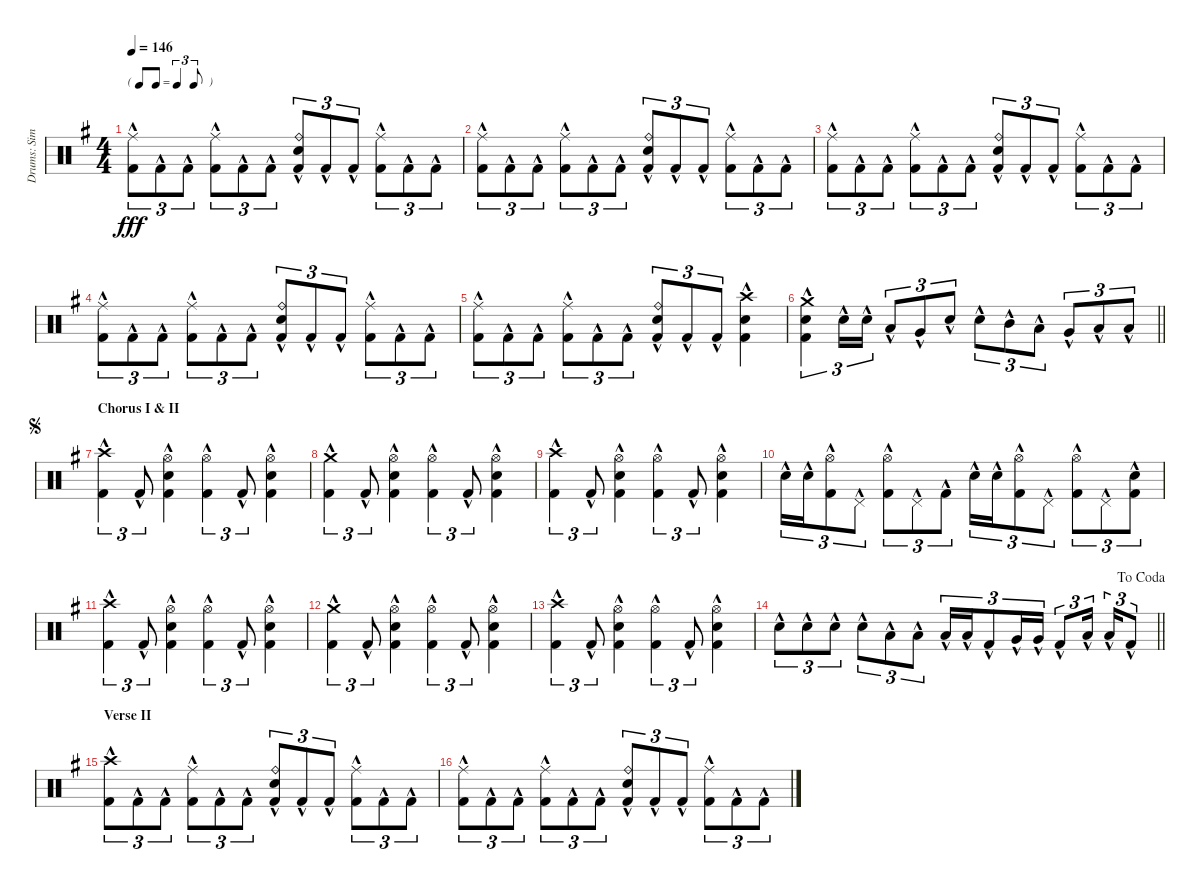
\track ("Drums: Simon" "Drums: Sim") {instrument percussion}
\staff {score}
\articulation defaults
\ts (4 4)
\tf triplet8th
\tempo 146
\clef neutral
\ks g
("Ride (middle)"{hac} "Kick (hit) 2"{hac}).8{tu (3 2) dy fff} "Kick (hit) 2"{hac}.8{tu (3 2)} "Kick (hit) 2"{hac}.8{tu (3 2)} ("Ride (middle)"{hac} "Kick (hit) 2"{hac}).8{tu (3 2)} "Kick (hit) 2"{hac}.8{tu (3 2)} "Kick (hit) 2"{hac}.8{tu (3 2)} ("Ride (bell)"{hac} "Snare (hit) 2"{hac} "Kick (hit) 2"{hac}).8{tu (3 2)} "Kick (hit) 2"{hac}.8{tu (3 2)} "Kick (hit) 2"{hac}.8{tu (3 2)} ("Ride (middle)"{hac} "Kick (hit) 2"{hac}).8{tu (3 2)} "Kick (hit) 2"{hac}.8{tu (3 2)} "Kick (hit) 2"{hac}.8{tu (3 2)} |
("Ride (middle)"{hac} "Kick (hit) 2"{hac}).8{tu (3 2)} "Kick (hit) 2"{hac}.8{tu (3 2)} "Kick (hit) 2"{hac}.8{tu (3 2)} ("Ride (middle)"{hac} "Kick (hit) 2"{hac}).8{tu (3 2)} "Kick (hit) 2"{hac}.8{tu (3 2)} "Kick (hit) 2"{hac}.8{tu (3 2)} ("Ride (bell)"{hac} "Snare (hit) 2"{hac} "Kick (hit) 2"{hac}).8{tu (3 2)} "Kick (hit) 2"{hac}.8{tu (3 2)} "Kick (hit) 2"{hac}.8{tu (3 2)} ("Ride (middle)"{hac} "Kick (hit) 2"{hac}).8{tu (3 2)} "Kick (hit) 2"{hac}.8{tu (3 2)} "Kick (hit) 2"{hac}.8{tu (3 2)} |
("Ride (middle)"{hac} "Kick (hit) 2"{hac}).8{tu (3 2)} "Kick (hit) 2"{hac}.8{tu (3 2)} "Kick (hit) 2"{hac}.8{tu (3 2)} ("Ride (middle)"{hac} "Kick (hit) 2"{hac}).8{tu (3 2)} "Kick (hit) 2"{hac}.8{tu (3 2)} "Kick (hit) 2"{hac}.8{tu (3 2)} ("Ride (bell)"{hac} "Snare (hit) 2"{hac} "Kick (hit) 2"{hac}).8{tu (3 2)} "Kick (hit) 2"{hac}.8{tu (3 2)} "Kick (hit) 2"{hac}.8{tu (3 2)} ("Ride (middle)"{hac} "Kick (hit) 2"{hac}).8{tu (3 2)} "Kick (hit) 2"{hac}.8{tu (3 2)} "Kick (hit) 2"{hac}.8{tu (3 2)} |
("Ride (middle)"{hac} "Kick (hit) 2"{hac}).8{tu (3 2)} "Kick (hit) 2"{hac}.8{tu (3 2)} "Kick (hit) 2"{hac}.8{tu (3 2)} ("Ride (middle)"{hac} "Kick (hit) 2"{hac}).8{tu (3 2)} "Kick (hit) 2"{hac}.8{tu (3 2)} "Kick (hit) 2"{hac}.8{tu (3 2)} ("Ride (bell)"{hac} "Snare (hit) 2"{hac} "Kick (hit) 2"{hac}).8{tu (3 2)} "Kick (hit) 2"{hac}.8{tu (3 2)} "Kick (hit) 2"{hac}.8{tu (3 2)} ("Ride (middle)"{hac} "Kick (hit) 2"{hac}).8{tu (3 2)} "Kick (hit) 2"{hac}.8{tu (3 2)} "Kick (hit) 2"{hac}.8{tu (3 2)} |
("Ride (middle)"{hac} "Kick (hit) 2"{hac}).8{tu (3 2)} "Kick (hit) 2"{hac}.8{tu (3 2)} "Kick (hit) 2"{hac}.8{tu (3 2)} ("Ride (middle)"{hac} "Kick (hit) 2"{hac}).8{tu (3 2)} "Kick (hit) 2"{hac}.8{tu (3 2)} "Kick (hit) 2"{hac}.8{tu (3 2)} ("Ride (bell)"{hac} "Snare (hit) 2"{hac} "Kick (hit) 2"{hac}).8{tu (3 2)} "Kick (hit) 2"{hac}.8{tu (3 2)} "Kick (hit) 2"{hac}.8{tu (3 2)} ("Crash high (hit)"{hac} "Snare (hit) 2"{hac} "Kick (hit) 2"{hac}).4 |
\barLineRight lightlight
("Crash medium (hit)"{hac} "Snare (hit) 2"{hac} "Kick (hit) 2"{hac}).4{tu (3 2)} "Snare (hit) 2"{hac}.16{tu (3 2)} "Snare (hit) 2"{hac}.16{tu (3 2)} "Low Tom (hit)"{hac}.8{tu (3 2)} "Very Low Tom (hit)"{hac}.8{tu (3 2)} "Snare (hit) 2"{hac}.8{tu (3 2)} "Snare (hit) 2"{hac}.8{tu (3 2)} "Mid Tom (hit)"{hac}.8{tu (3 2)} "Low Tom (hit)"{hac}.8{tu (3 2)} "Very Low Tom (hit)"{hac}.8{tu (3 2)} "Low Floor Tom (hit)"{hac}.8{tu (3 2)} "Low Floor Tom (hit)"{hac}.8{tu (3 2)} |
\section ("" "Chorus I & II")
\jump segno
("Crash high (hit)"{hac} "Kick (hit) 2"{hac}).4{tu (3 2)} "Kick (hit) 2"{hac}.8{tu (3 2)} ("Hi-Hat (open)"{hac} "Snare (hit) 2"{hac} "Kick (hit) 2"{hac}).4 ("Hi-Hat (open)"{hac} "Kick (hit) 2"{hac}).4{tu (3 2)} "Kick (hit) 2"{hac}.8{tu (3 2)} ("Hi-Hat (open)"{hac} "Snare (hit) 2"{hac} "Kick (hit) 2"{hac}).4 |
("Crash medium (hit)"{hac} "Kick (hit) 2"{hac}).4{tu (3 2)} "Kick (hit) 2"{hac}.8{tu (3 2)} ("Hi-Hat (open)"{hac} "Snare (hit) 2"{hac} "Kick (hit) 2"{hac}).4 ("Hi-Hat (open)"{hac} "Kick (hit) 2"{hac}).4{tu (3 2)} "Kick (hit) 2"{hac}.8{tu (3 2)} ("Hi-Hat (open)"{hac} "Snare (hit) 2"{hac} "Kick (hit) 2"{hac}).4 |
("Crash high (hit)"{hac} "Kick (hit) 2"{hac}).4{tu (3 2)} "Kick (hit) 2"{hac}.8{tu (3 2)} ("Hi-Hat (open)"{hac} "Snare (hit) 2"{hac} "Kick (hit) 2"{hac}).4 ("Hi-Hat (open)"{hac} "Kick (hit) 2"{hac}).4{tu (3 2)} "Kick (hit) 2"{hac}.8{tu (3 2)} ("Hi-Hat (open)"{hac} "Snare (hit) 2"{hac} "Kick (hit) 2"{hac}).4 |
"Snare (hit) 2"{hac}.16{tu (3 2)} "Snare (hit) 2"{hac}.16{tu (3 2)} ("Hi-Hat (open)"{hac} "Kick (hit) 2"{hac}).8{tu (3 2)} "Pedal Hi-Hat (hit)"{hac}.8{tu (3 2)} ("Hi-Hat (open)"{hac} "Kick (hit) 2"{hac}).8{tu (3 2)} "Pedal Hi-Hat (hit)"{hac}.8{tu (3 2)} "Kick (hit) 2"{hac}.8{tu (3 2)} "Snare (hit) 2"{hac}.16{tu (3 2)} "Snare (hit) 2"{hac}.16{tu (3 2)} ("Hi-Hat (open)"{hac} "Kick (hit) 2"{hac}).8{tu (3 2)} "Pedal Hi-Hat (hit)"{hac}.8{tu (3 2)} ("Hi-Hat (open)"{hac} "Kick (hit) 2"{hac}).8{tu (3 2)} "Pedal Hi-Hat (hit)"{hac}.8{tu (3 2)} ("Snare (hit) 2"{hac} "Kick (hit) 2"{hac}).8{tu (3 2)} |
("Crash high (hit)"{hac} "Kick (hit) 2"{hac}).4{tu (3 2)} "Kick (hit) 2"{hac}.8{tu (3 2)} ("Hi-Hat (open)"{hac} "Snare (hit) 2"{hac} "Kick (hit) 2"{hac}).4 ("Hi-Hat (open)"{hac} "Kick (hit) 2"{hac}).4{tu (3 2)} "Kick (hit) 2"{hac}.8{tu (3 2)} ("Hi-Hat (open)"{hac} "Snare (hit) 2"{hac} "Kick (hit) 2"{hac}).4 |
("Crash medium (hit)"{hac} "Kick (hit) 2"{hac}).4{tu (3 2)} "Kick (hit) 2"{hac}.8{tu (3 2)} ("Hi-Hat (open)"{hac} "Snare (hit) 2"{hac} "Kick (hit) 2"{hac}).4 ("Hi-Hat (open)"{hac} "Kick (hit) 2"{hac}).4{tu (3 2)} "Kick (hit) 2"{hac}.8{tu (3 2)} ("Hi-Hat (open)"{hac} "Snare (hit) 2"{hac} "Kick (hit) 2"{hac}).4 |
("Crash high (hit)"{hac} "Kick (hit) 2"{hac}).4{tu (3 2)} "Kick (hit) 2"{hac}.8{tu (3 2)} ("Hi-Hat (open)"{hac} "Snare (hit) 2"{hac} "Kick (hit) 2"{hac}).4 ("Hi-Hat (open)"{hac} "Kick (hit) 2"{hac}).4{tu (3 2)} "Kick (hit) 2"{hac}.8{tu (3 2)} ("Hi-Hat (open)"{hac} "Snare (hit) 2"{hac} "Kick (hit) 2"{hac}).4 |
\jump dacoda
\barLineRight lightlight "Electric Snare (hit)"{hac}.8{tu (3 2)} "Electric Snare (hit)"{hac}.8{tu (3 2)} "Electric Snare (hit)"{hac}.8{tu (3 2)} "Electric Snare (hit)"{hac}.8{tu (3 2)} "Low Tom (hit)"{hac}.8{tu (3 2)} "Low Tom (hit)"{hac}.8{tu (3 2)} "Low Tom (hit)"{hac}.16{tu (3 2)} "Low Tom (hit)"{hac}.16{tu (3 2)} "Kick (hit) 2"{hac}.8{tu (3 2)} "Very Low Tom (hit)"{hac}.16{tu (3 2)} "Very Low Tom (hit)"{hac}.16{tu (3 2)} "Kick (hit) 2"{hac}.8{tu (3 2)} "Low Floor Tom (hit)"{hac}.16{tu (3 2) beam splitsecondary} "Low Floor Tom (hit)"{hac}.16{tu (3 2)} "Kick (hit) 2"{hac}.8{tu (3 2)}
|
\section ("" "Verse II")
("Crash high (hit)"{hac} "Kick (hit) 2"{hac}).8{tu (3 2)} "Kick (hit) 2"{hac}.8{tu (3 2)} "Kick (hit) 2"{hac}.8{tu (3 2)} ("Ride (middle)"{hac} "Kick (hit) 2"{hac}).8{tu (3 2)} "Kick (hit) 2"{hac}.8{tu (3 2)} "Kick (hit) 2"{hac}.8{tu (3 2)} ("Ride (bell)"{hac} "Snare (hit) 2"{hac} "Kick (hit) 2"{hac}).8{tu (3 2)} "Kick (hit) 2"{hac}.8{tu (3 2)} "Kick (hit) 2"{hac}.8{tu (3 2)} ("Ride (middle)"{hac} "Kick (hit) 2"{hac}).8{tu (3 2)} "Kick (hit) 2"{hac}.8{tu (3 2)} "Kick (hit) 2"{hac}.8{tu (3 2)} |
("Ride (middle)"{hac} "Kick (hit) 2"{hac}).8{tu (3 2)} "Kick (hit) 2"{hac}.8{tu (3 2)} "Kick (hit) 2"{hac}.8{tu (3 2)} ("Ride (middle)"{hac} "Kick (hit) 2"{hac}).8{tu (3 2)} "Kick (hit) 2"{hac}.8{tu (3 2)} "Kick (hit) 2"{hac}.8{tu (3 2)} ("Ride (bell)"{hac} "Snare (hit) 2"{hac} "Kick (hit) 2"{hac}).8{tu (3 2)} "Kick (hit) 2"{hac}.8{tu (3 2)} "Kick (hit) 2"{hac}.8{tu (3 2)} ("Ride (middle)"{hac} "Kick (hit) 2"{hac}).8{tu (3 2)} "Kick (hit) 2"{hac}.8{tu (3 2)} "Kick (hit) 2"{hac}.8{tu (3 2)}
